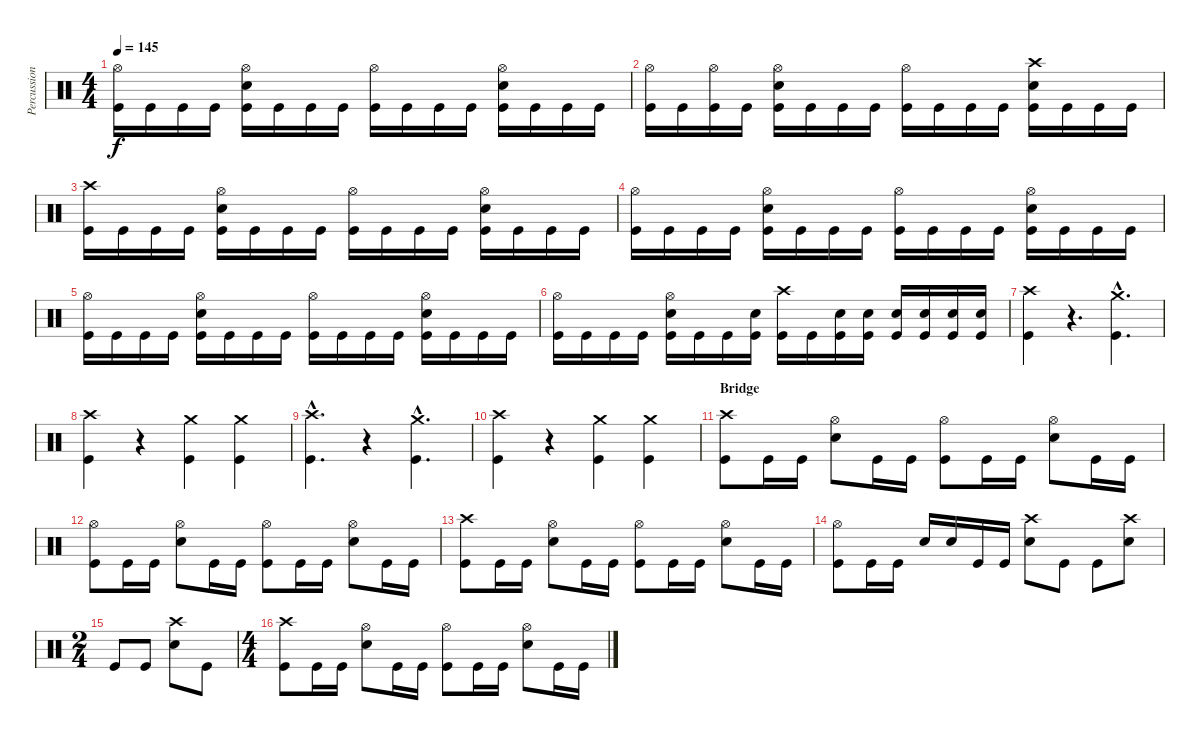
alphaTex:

\track ("Percussions" "Percussion") {instrument percussion}
\staff {score}
\articulation defaults
\ts (4 4)
\tempo 145
\clef neutral
\ks c
("Hi-Hat (open)" "Kick (hit)").16{dy f} "Kick (hit)".16 "Kick (hit)".16 "Kick (hit)".16 ("Hi-Hat (open)" "Snare (hit) 2" "Kick (hit)").16 "Kick (hit)".16 "Kick (hit)".16 "Kick (hit)".16 ("Hi-Hat (open)" "Kick (hit)").16 "Kick (hit)".16 "Kick (hit)".16 "Kick (hit)".16 ("Hi-Hat (open)" "Snare (hit) 2" "Kick (hit)").16 "Kick (hit)".16 "Kick (hit)".16 "Kick (hit)".16 |
("Hi-Hat (open)" "Kick (hit)").16 "Kick (hit)".16 ("Hi-Hat (open)" "Kick (hit)").16 "Kick (hit)".16 ("Hi-Hat (open)" "Snare (hit) 2" "Kick (hit)").16 "Kick (hit)".16 "Kick (hit)".16 "Kick (hit)".16 ("Hi-Hat (open)" "Kick (hit)").16 "Kick (hit)".16 "Kick (hit)".16 "Kick (hit)".16 ("Crash high (hit)" "Snare (hit) 2" "Kick (hit)").16 "Kick (hit)".16 "Kick (hit)".16 "Kick (hit)".16 |
("Crash high (hit)" "Kick (hit)").16 "Kick (hit)".16 "Kick (hit)".16 "Kick (hit)".16 ("Hi-Hat (open)" "Snare (hit) 2" "Kick (hit)").16 "Kick (hit)".16 "Kick (hit)".16 "Kick (hit)".16 ("Hi-Hat (open)" "Kick (hit)").16 "Kick (hit)".16 "Kick (hit)".16 "Kick (hit)".16 ("Hi-Hat (open)" "Snare (hit) 2" "Kick (hit)").16 "Kick (hit)".16 "Kick (hit)".16 "Kick (hit)".16 |
("Hi-Hat (open)" "Kick (hit)").16 "Kick (hit)".16 "Kick (hit)".16 "Kick (hit)".16 ("Hi-Hat (open)" "Snare (hit) 2" "Kick (hit)").16 "Kick (hit)".16 "Kick (hit)".16 "Kick (hit)".16 ("Hi-Hat (open)" "Kick (hit)").16 "Kick (hit)".16 "Kick (hit)".16 "Kick (hit)".16 ("Hi-Hat (open)" "Snare (hit) 2" "Kick (hit)").16 "Kick (hit)".16 "Kick (hit)".16 "Kick (hit)".16 |
("Hi-Hat (open)" "Kick (hit)").16 "Kick (hit)".16 "Kick (hit)".16 "Kick (hit)".16 ("Hi-Hat (open)" "Snare (hit) 2" "Kick (hit)").16 "Kick (hit)".16 "Kick (hit)".16 "Kick (hit)".16 ("Hi-Hat (open)" "Kick (hit)").16 "Kick (hit)".16 "Kick (hit)".16 "Kick (hit)".16 ("Hi-Hat (open)" "Snare (hit) 2" "Kick (hit)").16 "Kick (hit)".16 "Kick (hit)".16 "Kick (hit)".16 |
("Hi-Hat (open)" "Kick (hit)").16 "Kick (hit)".16 "Kick (hit)".16 "Kick (hit)".16 ("Hi-Hat (open)" "Snare (hit) 2" "Kick (hit)").16 "Kick (hit)".16 "Kick (hit)".16 ("Snare (hit) 2" "Kick (hit)").16 ("Crash high (hit)" "Kick (hit)").16 "Kick (hit)".16 ("Snare (hit) 2" "Kick (hit)").16 ("Snare (hit) 2" "Kick (hit)").16 ("Snare (hit) 2" "Kick (hit)").16 ("Snare (hit) 2" "Kick (hit)").16 ("Snare (hit) 2" "Kick (hit)").16 ("Snare (hit) 2" "Kick (hit)").16 |
("Crash high (hit)" "Kick (hit)").4 r.4{d} ("Crash medium (hit)"{hac} "Kick (hit)"{hac}).4{d} |
("Crash high (hit)" "Kick (hit)").4 r.4 ("Crash medium (hit)" "Kick (hit)").4 ("Crash medium (hit)" "Kick (hit)").4 |
("Crash high (hit)"{hac} "Kick (hit)"{hac}).4{d} r.4 ("Crash medium (hit)"{hac} "Kick (hit)"{hac}).4{d} |
("Crash high (hit)" "Kick (hit)").4 r.4 ("Crash medium (hit)" "Kick (hit)").4 ("Crash medium (hit)" "Kick (hit)").4 |
\section ("" "Bridge")
("Crash high (hit)" "Kick (hit)").8 "Kick (hit)".16 "Kick (hit)".16 ("Hi-Hat (open)" "Snare (hit) 2").8 "Kick (hit)".16 "Kick (hit)".16 ("Hi-Hat (open)" "Kick (hit)").8 "Kick (hit)".16 "Kick (hit)".16 ("Hi-Hat (open)" "Snare (hit) 2").8 "Kick (hit)".16 "Kick (hit)".16 |
("Hi-Hat (open)" "Kick (hit)").8 "Kick (hit)".16 "Kick (hit)".16 ("Hi-Hat (open)" "Snare (hit) 2").8 "Kick (hit)".16 "Kick (hit)".16 ("Hi-Hat (open)" "Kick (hit)").8 "Kick (hit)".16 "Kick (hit)".16 ("Hi-Hat (open)" "Snare (hit) 2").8 "Kick (hit)".16 "Kick (hit)".16 |
("Crash high (hit)" "Kick (hit)").8 "Kick (hit)".16 "Kick (hit)".16 ("Hi-Hat (open)" "Snare (hit) 2").8 "Kick (hit)".16 "Kick (hit)".16 ("Hi-Hat (open)" "Kick (hit)").8 "Kick (hit)".16 "Kick (hit)".16 ("Hi-Hat (open)" "Snare (hit) 2").8 "Kick (hit)".16 "Kick (hit)".16 |
("Hi-Hat (open)" "Kick (hit)").8 "Kick (hit)".16 "Kick (hit)".16 "Snare (hit) 2".16 "Snare (hit) 2".16 "Kick (hit)".16 "Kick (hit)".16 ("Crash high (hit)" "Snare (hit) 2").8 "Kick (hit)".8 "Kick (hit)".8 ("Crash high (hit)" "Snare (hit) 2").8 |
\ts (2 4)
"Kick (hit)".8 "Kick (hit)".8 ("Crash high (hit)" "Snare (hit) 2").8 "Kick (hit)".8 |
\ts (4 4)
("Crash high (hit)" "Kick (hit)").8 "Kick (hit)".16 "Kick (hit)".16 ("Hi-Hat (open)" "Snare (hit) 2").8 "Kick (hit)".16 "Kick (hit)".16 ("Hi-Hat (open)" "Kick (hit)").8 "Kick (hit)".16 "Kick (hit)".16 ("Hi-Hat (open)" "Snare (hit) 2").8 "Kick (hit)".16 "Kick (hit)".16
